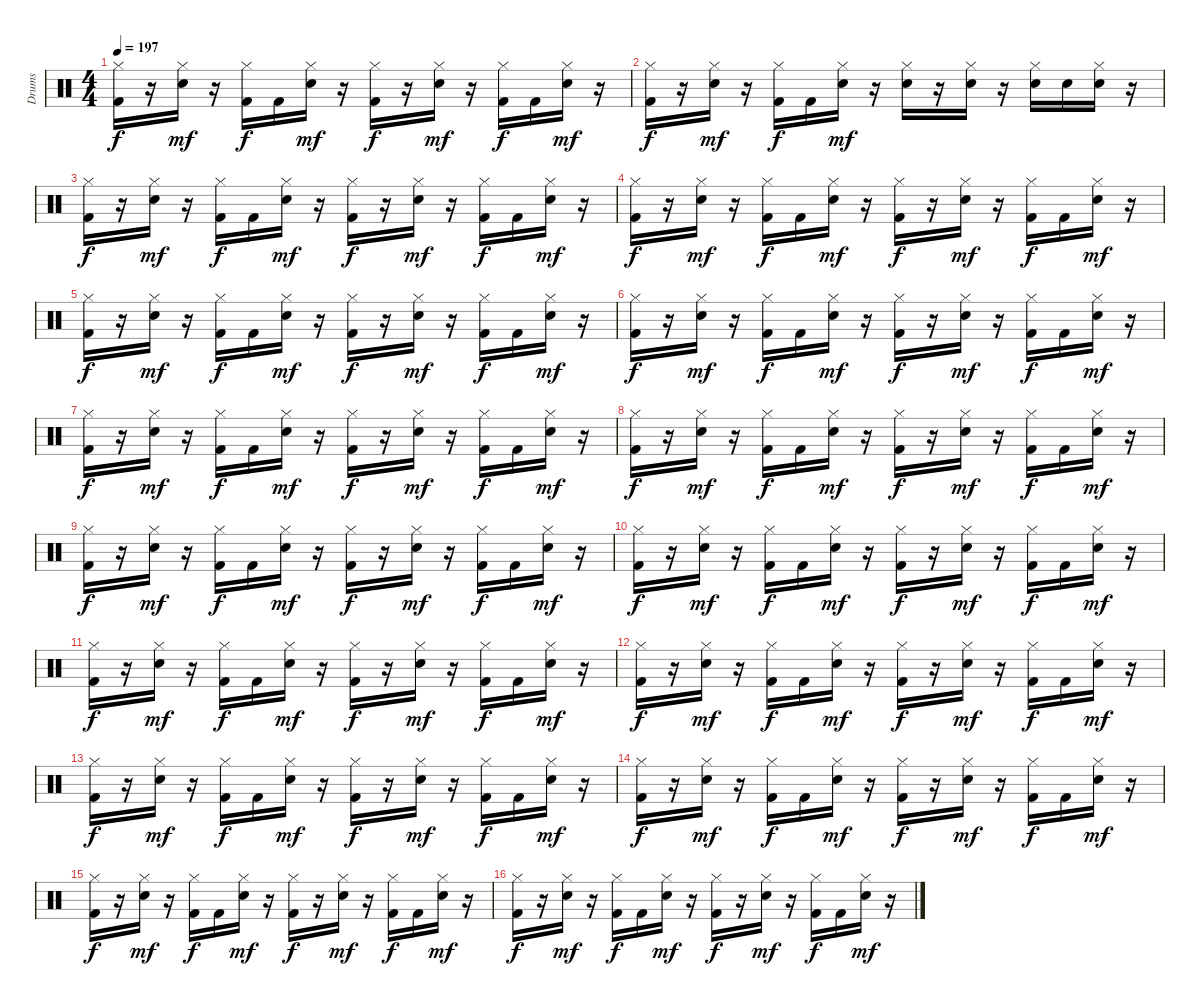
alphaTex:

\track ("Drums" "Drums") {instrument percussion}
\staff {score}
\articulation defaults
\ts (4 4)
\tempo 197
\clef neutral
\ks c
("Kick (hit) 2" "Hi-Hat (closed)").16{dy f} r.16 ("Snare (hit) 2" "Hi-Hat (closed)").16{dy mf} r.16 ("Kick (hit) 2" "Hi-Hat (closed)").16{dy f} "Kick (hit) 2".16 ("Snare (hit) 2" "Hi-Hat (closed)").16{dy mf} r.16 ("Kick (hit) 2" "Hi-Hat (closed)").16{dy f} r.16 ("Snare (hit) 2" "Hi-Hat (closed)").16{dy mf} r.16 ("Kick (hit) 2" "Hi-Hat (closed)").16{dy f} "Kick (hit) 2".16 ("Snare (hit) 2" "Hi-Hat (closed)").16{dy mf} r.16 |
("Kick (hit) 2" "Hi-Hat (closed)").16{dy f} r.16 ("Snare (hit) 2" "Hi-Hat (closed)").16{dy mf} r.16 ("Kick (hit) 2" "Hi-Hat (closed)").16{dy f} "Kick (hit) 2".16 ("Snare (hit) 2" "Hi-Hat (closed)").16{dy mf} r.16 ("Snare (hit) 2" "Hi-Hat (closed)").16 r.16 ("Snare (hit) 2" "Hi-Hat (closed)").16 r.16 ("Snare (hit) 2" "Hi-Hat (closed)").16 "Snare (hit) 2".16 ("Snare (hit) 2" "Hi-Hat (closed)").16 r.16 |
("Kick (hit) 2" "Hi-Hat (closed)").16{dy f} r.16 ("Snare (hit) 2" "Hi-Hat (closed)").16{dy mf} r.16 ("Kick (hit) 2" "Hi-Hat (closed)").16{dy f} "Kick (hit) 2".16 ("Snare (hit) 2" "Hi-Hat (closed)").16{dy mf} r.16 ("Kick (hit) 2" "Hi-Hat (closed)").16{dy f} r.16 ("Snare (hit) 2" "Hi-Hat (closed)").16{dy mf} r.16 ("Kick (hit) 2" "Hi-Hat (closed)").16{dy f} "Kick (hit) 2".16 ("Snare (hit) 2" "Hi-Hat (closed)").16{dy mf} r.16 |
("Kick (hit) 2" "Hi-Hat (closed)").16{dy f} r.16 ("Snare (hit) 2" "Hi-Hat (closed)").16{dy mf} r.16 ("Kick (hit) 2" "Hi-Hat (closed)").16{dy f} "Kick (hit) 2".16 ("Snare (hit) 2" "Hi-Hat (closed)").16{dy mf} r.16 ("Kick (hit) 2" "Hi-Hat (closed)").16{dy f} r.16 ("Snare (hit) 2" "Hi-Hat (closed)").16{dy mf} r.16 ("Kick (hit) 2" "Hi-Hat (closed)").16{dy f} "Kick (hit) 2".16 ("Snare (hit) 2" "Hi-Hat (closed)").16{dy mf} r.16 |
("Kick (hit) 2" "Hi-Hat (closed)").16{dy f} r.16 ("Snare (hit) 2" "Hi-Hat (closed)").16{dy mf} r.16 ("Kick (hit) 2" "Hi-Hat (closed)").16{dy f} "Kick (hit) 2".16 ("Snare (hit) 2" "Hi-Hat (closed)").16{dy mf} r.16 ("Kick (hit) 2" "Hi-Hat (closed)").16{dy f} r.16 ("Snare (hit) 2" "Hi-Hat (closed)").16{dy mf} r.16 ("Kick (hit) 2" "Hi-Hat (closed)").16{dy f} "Kick (hit) 2".16 ("Snare (hit) 2" "Hi-Hat (closed)").16{dy mf} r.16 |
("Kick (hit) 2" "Hi-Hat (closed)").16{dy f} r.16 ("Snare (hit) 2" "Hi-Hat (closed)").16{dy mf} r.16 ("Kick (hit) 2" "Hi-Hat (closed)").16{dy f} "Kick (hit) 2".16 ("Snare (hit) 2" "Hi-Hat (closed)").16{dy mf} r.16 ("Kick (hit) 2" "Hi-Hat (closed)").16{dy f} r.16 ("Snare (hit) 2" "Hi-Hat (closed)").16{dy mf} r.16 ("Kick (hit) 2" "Hi-Hat (closed)").16{dy f} "Kick (hit) 2".16 ("Snare (hit) 2" "Hi-Hat (closed)").16{dy mf} r.16 |
("Kick (hit) 2" "Hi-Hat (closed)").16{dy f} r.16 ("Snare (hit) 2" "Hi-Hat (closed)").16{dy mf} r.16 ("Kick (hit) 2" "Hi-Hat (closed)").16{dy f} "Kick (hit) 2".16 ("Snare (hit) 2" "Hi-Hat (closed)").16{dy mf} r.16 ("Kick (hit) 2" "Hi-Hat (closed)").16{dy f} r.16 ("Snare (hit) 2" "Hi-Hat (closed)").16{dy mf} r.16 ("Kick (hit) 2" "Hi-Hat (closed)").16{dy f} "Kick (hit) 2".16 ("Snare (hit) 2" "Hi-Hat (closed)").16{dy mf} r.16 |
("Kick (hit) 2" "Hi-Hat (closed)").16{dy f} r.16 ("Snare (hit) 2" "Hi-Hat (closed)").16{dy mf} r.16 ("Kick (hit) 2" "Hi-Hat (closed)").16{dy f} "Kick (hit) 2".16 ("Snare (hit) 2" "Hi-Hat (closed)").16{dy mf} r.16 ("Kick (hit) 2" "Hi-Hat (closed)").16{dy f} r.16 ("Snare (hit) 2" "Hi-Hat (closed)").16{dy mf} r.16 ("Kick (hit) 2" "Hi-Hat (closed)").16{dy f} "Kick (hit) 2".16 ("Snare (hit) 2" "Hi-Hat (closed)").16{dy mf} r.16 |
("Kick (hit) 2" "Hi-Hat (closed)").16{dy f} r.16 ("Snare (hit) 2" "Hi-Hat (closed)").16{dy mf} r.16 ("Kick (hit) 2" "Hi-Hat (closed)").16{dy f} "Kick (hit) 2".16 ("Snare (hit) 2" "Hi-Hat (closed)").16{dy mf} r.16 ("Kick (hit) 2" "Hi-Hat (closed)").16{dy f} r.16 ("Snare (hit) 2" "Hi-Hat (closed)").16{dy mf} r.16 ("Kick (hit) 2" "Hi-Hat (closed)").16{dy f} "Kick (hit) 2".16 ("Snare (hit) 2" "Hi-Hat (closed)").16{dy mf} r.16 |
("Kick (hit) 2" "Hi-Hat (closed)").16{dy f} r.16 ("Snare (hit) 2" "Hi-Hat (closed)").16{dy mf} r.16 ("Kick (hit) 2" "Hi-Hat (closed)").16{dy f} "Kick (hit) 2".16 ("Snare (hit) 2" "Hi-Hat (closed)").16{dy mf} r.16 ("Kick (hit) 2" "Hi-Hat (closed)").16{dy f} r.16 ("Snare (hit) 2" "Hi-Hat (closed)").16{dy mf} r.16 ("Kick (hit) 2" "Hi-Hat (closed)").16{dy f} "Kick (hit) 2".16 ("Snare (hit) 2" "Hi-Hat (closed)").16{dy mf} r.16 |
("Kick (hit) 2" "Hi-Hat (closed)").16{dy f} r.16 ("Snare (hit) 2" "Hi-Hat (closed)").16{dy mf} r.16 ("Kick (hit) 2" "Hi-Hat (closed)").16{dy f} "Kick (hit) 2".16 ("Snare (hit) 2" "Hi-Hat (closed)").16{dy mf} r.16 ("Kick (hit) 2" "Hi-Hat (closed)").16{dy f} r.16 ("Snare (hit) 2" "Hi-Hat (closed)").16{dy mf} r.16 ("Kick (hit) 2" "Hi-Hat (closed)").16{dy f} "Kick (hit) 2".16 ("Snare (hit) 2" "Hi-Hat (closed)").16{dy mf} r.16 |
("Kick (hit) 2" "Hi-Hat (closed)").16{dy f} r.16 ("Snare (hit) 2" "Hi-Hat (closed)").16{dy mf} r.16 ("Kick (hit) 2" "Hi-Hat (closed)").16{dy f} "Kick (hit) 2".16 ("Snare (hit) 2" "Hi-Hat (closed)").16{dy mf} r.16 ("Kick (hit) 2" "Hi-Hat (closed)").16{dy f} r.16 ("Snare (hit) 2" "Hi-Hat (closed)").16{dy mf} r.16 ("Kick (hit) 2" "Hi-Hat (closed)").16{dy f} "Kick (hit) 2".16 ("Snare (hit) 2" "Hi-Hat (closed)").16{dy mf} r.16 |
("Kick (hit) 2" "Hi-Hat (closed)").16{dy f} r.16 ("Snare (hit) 2" "Hi-Hat (closed)").16{dy mf} r.16 ("Kick (hit) 2" "Hi-Hat (closed)").16{dy f} "Kick (hit) 2".16 ("Snare (hit) 2" "Hi-Hat (closed)").16{dy mf} r.16 ("Kick (hit) 2" "Hi-Hat (closed)").16{dy f} r.16 ("Snare (hit) 2" "Hi-Hat (closed)").16{dy mf} r.16 ("Kick (hit) 2" "Hi-Hat (closed)").16{dy f} "Kick (hit) 2".16 ("Snare (hit) 2" "Hi-Hat (closed)").16{dy mf} r.16 |
("Kick (hit) 2" "Hi-Hat (closed)").16{dy f} r.16 ("Snare (hit) 2" "Hi-Hat (closed)").16{dy mf} r.16 ("Kick (hit) 2" "Hi-Hat (closed)").16{dy f} "Kick (hit) 2".16 ("Snare (hit) 2" "Hi-Hat (closed)").16{dy mf} r.16 ("Kick (hit) 2" "Hi-Hat (closed)").16{dy f} r.16 ("Snare (hit) 2" "Hi-Hat (closed)").16{dy mf} r.16 ("Kick (hit) 2" "Hi-Hat (closed)").16{dy f} "Kick (hit) 2".16 ("Snare (hit) 2" "Hi-Hat (closed)").16{dy mf} r.16 |
("Kick (hit) 2" "Hi-Hat (closed)").16{dy f} r.16 ("Snare (hit) 2" "Hi-Hat (closed)").16{dy mf} r.16 ("Kick (hit) 2" "Hi-Hat (closed)").16{dy f} "Kick (hit) 2".16 ("Snare (hit) 2" "Hi-Hat (closed)").16{dy mf} r.16 ("Kick (hit) 2" "Hi-Hat (closed)").16{dy f} r.16 ("Snare (hit) 2" "Hi-Hat (closed)").16{dy mf} r.16 ("Kick (hit) 2" "Hi-Hat (closed)").16{dy f} "Kick (hit) 2".16 ("Snare (hit) 2" "Hi-Hat (closed)").16{dy mf} r.16 |
("Kick (hit) 2" "Hi-Hat (closed)").16{dy f} r.16 ("Snare (hit) 2" "Hi-Hat (closed)").16{dy mf} r.16 ("Kick (hit) 2" "Hi-Hat (closed)").16{dy f} "Kick (hit) 2".16 ("Snare (hit) 2" "Hi-Hat (closed)").16{dy mf} r.16 ("Kick (hit) 2" "Hi-Hat (closed)").16{dy f} r.16 ("Snare (hit) 2" "Hi-Hat (closed)").16{dy mf} r.16 ("Kick (hit) 2" "Hi-Hat (closed)").16{dy f} "Kick (hit) 2".16 ("Snare (hit) 2" "Hi-Hat (closed)").16{dy mf} r.16
